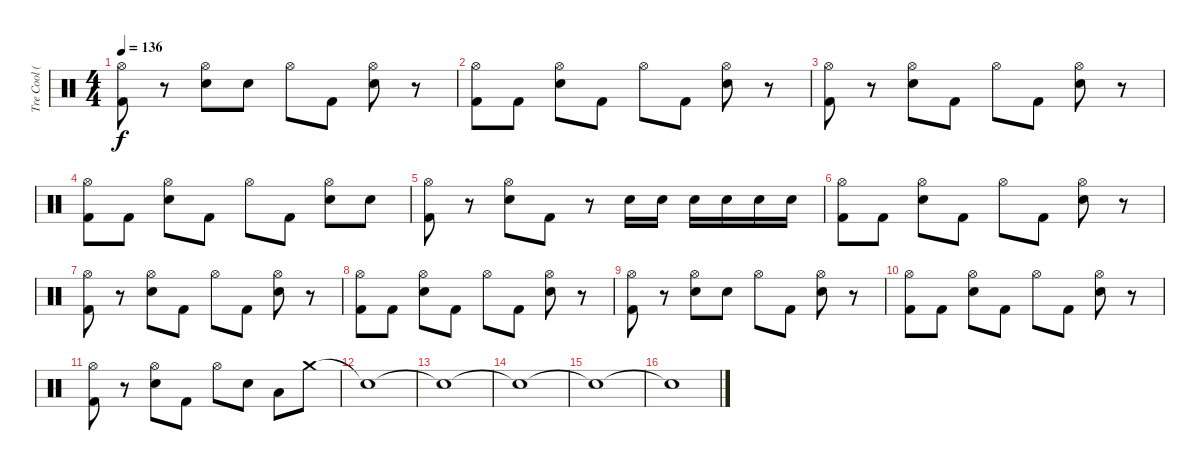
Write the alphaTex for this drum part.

\track ("Tre Cool (Drums)" "Tre Cool (") {instrument percussion}
\staff {score}
\articulation defaults
\ts (4 4)
\tempo 136
\clef neutral
\ks c
("Kick (hit) 2" "Hi-Hat (open)").8{dy f} r.8 ("Electric Snare (hit)" "Hi-Hat (open)").8 "Electric Snare (hit)".8 "Hi-Hat (open)".8 "Kick (hit) 2".8 ("Electric Snare (hit)" "Hi-Hat (open)").8 r.8 |
("Kick (hit) 2" "Hi-Hat (open)").8 "Kick (hit) 2".8 ("Electric Snare (hit)" "Hi-Hat (open)").8 "Kick (hit) 2".8 "Hi-Hat (open)".8 "Kick (hit) 2".8 ("Electric Snare (hit)" "Hi-Hat (open)").8 r.8 |
("Kick (hit) 2" "Hi-Hat (open)").8 r.8 ("Electric Snare (hit)" "Hi-Hat (open)").8 "Kick (hit) 2".8 "Hi-Hat (open)".8 "Kick (hit) 2".8 ("Electric Snare (hit)" "Hi-Hat (open)").8 r.8 |
("Kick (hit) 2" "Hi-Hat (open)").8 "Kick (hit) 2".8 ("Electric Snare (hit)" "Hi-Hat (open)").8 "Kick (hit) 2".8 "Hi-Hat (open)".8 "Kick (hit) 2".8 ("Electric Snare (hit)" "Hi-Hat (open)").8 "Electric Snare (hit)".8 |
("Kick (hit) 2" "Hi-Hat (open)").8 r.8 ("Electric Snare (hit)" "Hi-Hat (open)").8 "Kick (hit) 2".8 r.8 "Electric Snare (hit)".16 "Electric Snare (hit)".16 "Electric Snare (hit)".16 "Electric Snare (hit)".16 "Electric Snare (hit)".16 "Electric Snare (hit)".16 |
("Kick (hit) 2" "Hi-Hat (open)").8 "Kick (hit) 2".8 ("Electric Snare (hit)" "Hi-Hat (open)").8 "Kick (hit) 2".8 "Hi-Hat (open)".8 "Kick (hit) 2".8 ("Electric Snare (hit)" "Hi-Hat (open)").8 r.8 |
("Kick (hit) 2" "Hi-Hat (open)").8 r.8 ("Electric Snare (hit)" "Hi-Hat (open)").8 "Kick (hit) 2".8 "Hi-Hat (open)".8 "Kick (hit) 2".8 ("Electric Snare (hit)" "Hi-Hat (open)").8 r.8 |
("Kick (hit) 2" "Hi-Hat (open)").8 "Kick (hit) 2".8 ("Electric Snare (hit)" "Hi-Hat (open)").8 "Kick (hit) 2".8 "Hi-Hat (open)".8 "Kick (hit) 2".8 ("Electric Snare (hit)" "Hi-Hat (open)").8 r.8 |
("Kick (hit) 2" "Hi-Hat (open)").8 r.8 ("Electric Snare (hit)" "Hi-Hat (open)").8 "Electric Snare (hit)".8 "Hi-Hat (open)".8 "Kick (hit) 2".8 ("Electric Snare (hit)" "Hi-Hat (open)").8 r.8 |
("Kick (hit) 2" "Hi-Hat (open)").8 "Kick (hit) 2".8 ("Electric Snare (hit)" "Hi-Hat (open)").8 "Kick (hit) 2".8 "Hi-Hat (open)".8 "Kick (hit) 2".8 ("Electric Snare (hit)" "Hi-Hat (open)").8 r.8 |
("Kick (hit) 2" "Hi-Hat (open)").8 r.8 ("Electric Snare (hit)" "Hi-Hat (open)").8 "Kick (hit) 2".8 "Hi-Hat (open)".8 "Electric Snare (hit)".8 "Low Tom (hit)".8 "Crash medium (hit)".8 |
"Snare (hit)"{t}.1 |
"Snare (hit)"{t}.1 |
"Snare (hit)"{t}.1 |
"Snare (hit)"{t}.1 |
"Snare (hit)"{t}.1
